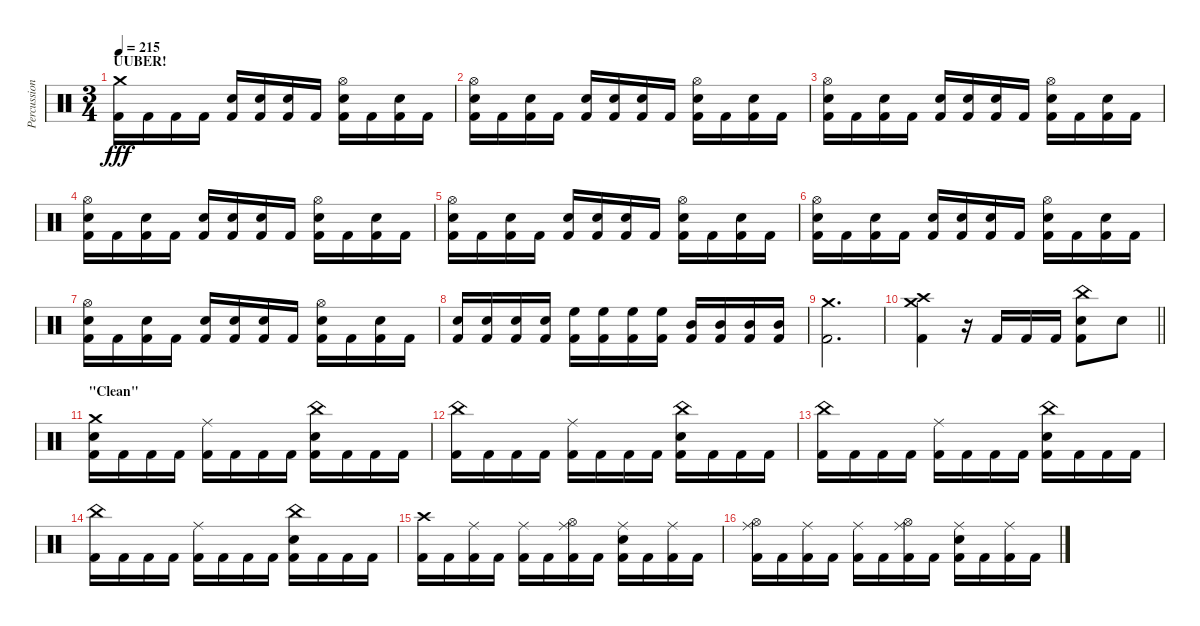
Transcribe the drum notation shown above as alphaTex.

\track ("Percussion" "Percussion") {instrument percussion}
\staff {score}
\articulation defaults
\ts (3 4)
\section ("" "UUBER!")
\tempo 215
\clef neutral
\ks c
("Crash medium (hit)" "Kick (hit) 2").16{dy fff} "Kick (hit) 2".16 "Kick (hit) 2".16 "Kick (hit) 2".16 ("Snare (hit) 2" "Kick (hit) 2").16 ("Snare (hit) 2" "Kick (hit) 2").16 ("Snare (hit) 2" "Kick (hit) 2").16 "Kick (hit) 2".16 ("Snare (hit) 2" "Hi-Hat (open)" "Kick (hit) 2").16 "Kick (hit) 2".16 ("Snare (hit) 2" "Kick (hit) 2").16 "Kick (hit) 2".16 |
("Snare (hit) 2" "Hi-Hat (open)" "Kick (hit) 2").16 "Kick (hit) 2".16 ("Snare (hit) 2" "Kick (hit) 2").16 "Kick (hit) 2".16 ("Snare (hit) 2" "Kick (hit) 2").16 ("Snare (hit) 2" "Kick (hit) 2").16 ("Snare (hit) 2" "Kick (hit) 2").16 "Kick (hit) 2".16 ("Snare (hit) 2" "Hi-Hat (open)" "Kick (hit) 2").16 "Kick (hit) 2".16 ("Snare (hit) 2" "Kick (hit) 2").16 "Kick (hit) 2".16 |
("Snare (hit) 2" "Hi-Hat (open)" "Kick (hit) 2").16 "Kick (hit) 2".16 ("Snare (hit) 2" "Kick (hit) 2").16 "Kick (hit) 2".16 ("Snare (hit) 2" "Kick (hit) 2").16 ("Snare (hit) 2" "Kick (hit) 2").16 ("Snare (hit) 2" "Kick (hit) 2").16 "Kick (hit) 2".16 ("Snare (hit) 2" "Hi-Hat (open)" "Kick (hit) 2").16 "Kick (hit) 2".16 ("Snare (hit) 2" "Kick (hit) 2").16 "Kick (hit) 2".16 |
("Snare (hit) 2" "Hi-Hat (open)" "Kick (hit) 2").16 "Kick (hit) 2".16 ("Snare (hit) 2" "Kick (hit) 2").16 "Kick (hit) 2".16 ("Snare (hit) 2" "Kick (hit) 2").16 ("Snare (hit) 2" "Kick (hit) 2").16 ("Snare (hit) 2" "Kick (hit) 2").16 "Kick (hit) 2".16 ("Snare (hit) 2" "Hi-Hat (open)" "Kick (hit) 2").16 "Kick (hit) 2".16 ("Snare (hit) 2" "Kick (hit) 2").16 "Kick (hit) 2".16 |
("Snare (hit) 2" "Hi-Hat (open)" "Kick (hit) 2").16 "Kick (hit) 2".16 ("Snare (hit) 2" "Kick (hit) 2").16 "Kick (hit) 2".16 ("Snare (hit) 2" "Kick (hit) 2").16 ("Snare (hit) 2" "Kick (hit) 2").16 ("Snare (hit) 2" "Kick (hit) 2").16 "Kick (hit) 2".16 ("Snare (hit) 2" "Hi-Hat (open)" "Kick (hit) 2").16 "Kick (hit) 2".16 ("Snare (hit) 2" "Kick (hit) 2").16 "Kick (hit) 2".16 |
("Snare (hit) 2" "Hi-Hat (open)" "Kick (hit) 2").16 "Kick (hit) 2".16 ("Snare (hit) 2" "Kick (hit) 2").16 "Kick (hit) 2".16 ("Snare (hit) 2" "Kick (hit) 2").16 ("Snare (hit) 2" "Kick (hit) 2").16 ("Snare (hit) 2" "Kick (hit) 2").16 "Kick (hit) 2".16 ("Snare (hit) 2" "Hi-Hat (open)" "Kick (hit) 2").16 "Kick (hit) 2".16 ("Snare (hit) 2" "Kick (hit) 2").16 "Kick (hit) 2".16 |
("Snare (hit) 2" "Hi-Hat (open)" "Kick (hit) 2").16 "Kick (hit) 2".16 ("Snare (hit) 2" "Kick (hit) 2").16 "Kick (hit) 2".16 ("Snare (hit) 2" "Kick (hit) 2").16 ("Snare (hit) 2" "Kick (hit) 2").16 ("Snare (hit) 2" "Kick (hit) 2").16 "Kick (hit) 2".16 ("Snare (hit) 2" "Hi-Hat (open)" "Kick (hit) 2").16 "Kick (hit) 2".16 ("Snare (hit) 2" "Kick (hit) 2").16 "Kick (hit) 2".16 |
("Snare (hit) 2" "Kick (hit) 2").16 ("Snare (hit) 2" "Kick (hit) 2").16 ("Snare (hit) 2" "Kick (hit) 2").16 ("Snare (hit) 2" "Kick (hit) 2").16 ("High Floor Tom (hit)" "Kick (hit) 2").16 ("High Floor Tom (hit)" "Kick (hit) 2").16 ("High Floor Tom (hit)" "Kick (hit) 2").16 ("High Floor Tom (hit)" "Kick (hit) 2").16 ("Mid Tom (hit)" "Kick (hit) 2").16 ("Mid Tom (hit)" "Kick (hit) 2").16 ("Mid Tom (hit)" "Kick (hit) 2").16 ("Mid Tom (hit)" "Kick (hit) 2").16 |
("Crash medium (hit)" "Kick (hit) 2").2{d} |
\barLineRight lightlight
("Crash medium (hit)" "Crash high (hit)" "Kick (hit) 2").4 r.16 "Kick (hit) 2".16 "Kick (hit) 2".16 "Kick (hit) 2".16 ("China (hit)" "Snare (hit) 2" "Kick (hit) 2").8 "Snare (hit) 2".8 |
\section ("" "\"Clean\"")
("Crash medium (hit)" "Snare (hit) 2" "Kick (hit) 2").16 "Kick (hit) 2".16 "Kick (hit) 2".16 "Kick (hit) 2".16 ("Ride (middle)" "Kick (hit) 2").16 "Kick (hit) 2".16 "Kick (hit) 2".16 "Kick (hit) 2".16 ("China (hit)" "Snare (hit) 2" "Kick (hit) 2").16 "Kick (hit) 2".16 "Kick (hit) 2".16 "Kick (hit) 2".16 |
("China (hit)" "Kick (hit) 2").16 "Kick (hit) 2".16 "Kick (hit) 2".16 "Kick (hit) 2".16 ("Ride (middle)" "Kick (hit) 2").16 "Kick (hit) 2".16 "Kick (hit) 2".16 "Kick (hit) 2".16 ("China (hit)" "Snare (hit) 2" "Kick (hit) 2").16 "Kick (hit) 2".16 "Kick (hit) 2".16 "Kick (hit) 2".16 |
("China (hit)" "Kick (hit) 2").16 "Kick (hit) 2".16 "Kick (hit) 2".16 "Kick (hit) 2".16 ("Ride (middle)" "Kick (hit) 2").16 "Kick (hit) 2".16 "Kick (hit) 2".16 "Kick (hit) 2".16 ("China (hit)" "Snare (hit) 2" "Kick (hit) 2").16 "Kick (hit) 2".16 "Kick (hit) 2".16 "Kick (hit) 2".16 |
("China (hit)" "Kick (hit) 2").16 "Kick (hit) 2".16 "Kick (hit) 2".16 "Kick (hit) 2".16 ("Ride (middle)" "Kick (hit) 2").16 "Kick (hit) 2".16 "Kick (hit) 2".16 "Kick (hit) 2".16 ("China (hit)" "Snare (hit) 2" "Kick (hit) 2").16 "Kick (hit) 2".16 "Kick (hit) 2".16 "Kick (hit) 2".16 |
("Crash high (hit)" "Kick (hit) 2").16 "Kick (hit) 2".16 ("Ride (middle)" "Kick (hit) 2").16 "Kick (hit) 2".16 ("Ride (middle)" "Kick (hit) 2").16 "Kick (hit) 2".16 ("Ride (middle)" "Hi-Hat (open)" "Kick (hit) 2").16 "Kick (hit) 2".16 ("Ride (middle)" "Snare (hit) 2" "Kick (hit) 2").16 "Kick (hit) 2".16 ("Ride (middle)" "Kick (hit) 2").16 "Kick (hit) 2".16 |
("Ride (middle)" "Hi-Hat (open)" "Kick (hit) 2").16 "Kick (hit) 2".16 ("Ride (middle)" "Kick (hit) 2").16 "Kick (hit) 2".16 ("Ride (middle)" "Kick (hit) 2").16 "Kick (hit) 2".16 ("Ride (middle)" "Hi-Hat (open)" "Kick (hit) 2").16 "Kick (hit) 2".16 ("Ride (middle)" "Snare (hit) 2" "Kick (hit) 2").16 "Kick (hit) 2".16 ("Ride (middle)" "Kick (hit) 2").16 "Kick (hit) 2".16
